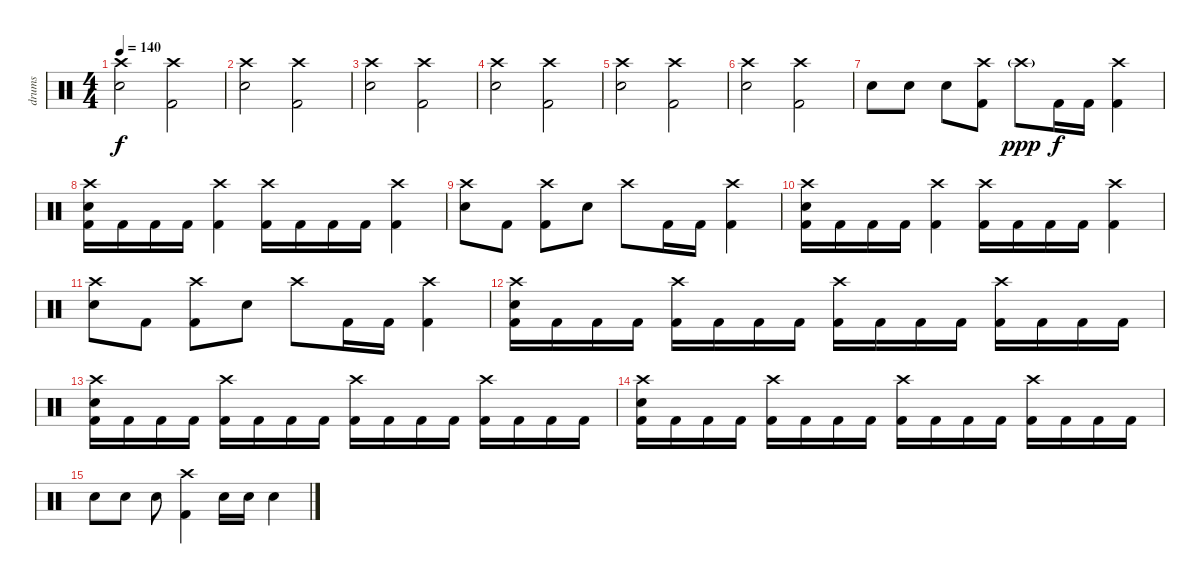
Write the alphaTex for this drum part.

\track ("drums" "drums") {instrument percussion}
\staff {score}
\articulation defaults
\ts (4 4)
\tempo 140
\clef neutral
\ks c
("Crash high (hit)" "Electric Snare (hit)").2{dy f} ("Crash high (hit)" "Kick (hit) 2").2 |
("Crash high (hit)" "Electric Snare (hit)").2 ("Crash high (hit)" "Kick (hit) 2").2 |
("Crash high (hit)" "Electric Snare (hit)").2 ("Crash high (hit)" "Kick (hit) 2").2 |
("Crash high (hit)" "Electric Snare (hit)").2 ("Crash high (hit)" "Kick (hit) 2").2 |
("Crash high (hit)" "Electric Snare (hit)").2 ("Crash high (hit)" "Kick (hit) 2").2 |
("Crash high (hit)" "Electric Snare (hit)").2 ("Crash high (hit)" "Kick (hit) 2").2 |
"Electric Snare (hit)".8 "Electric Snare (hit)".8 "Electric Snare (hit)".8 ("Crash high (hit)"{pm} "Kick (hit) 2").8 "Crash high (hit)"{g}.8{dy ppp} "Kick (hit) 2".16{dy f} "Kick (hit) 2".16 ("Crash high (hit)" "Kick (hit) 2").4 |
("Crash high (hit)" "Electric Snare (hit)" "Kick (hit) 2").16 "Kick (hit) 2".16 "Kick (hit) 2".16 "Kick (hit) 2".16 ("Crash high (hit)" "Kick (hit) 2").4 ("Crash high (hit)" "Kick (hit) 2").16 "Kick (hit) 2".16 "Kick (hit) 2".16 "Kick (hit) 2".16 ("Crash high (hit)" "Kick (hit) 2").4 |
("Crash high (hit)" "Electric Snare (hit)").8 "Kick (hit) 2".8 ("Crash high (hit)" "Kick (hit) 2").8 "Electric Snare (hit)".8 "Crash high (hit)".8 "Kick (hit) 2".16 "Kick (hit) 2".16 ("Crash high (hit)" "Kick (hit) 2").4 |
("Crash high (hit)" "Electric Snare (hit)" "Kick (hit) 2").16 "Kick (hit) 2".16 "Kick (hit) 2".16 "Kick (hit) 2".16 ("Crash high (hit)" "Kick (hit) 2").4 ("Crash high (hit)" "Kick (hit) 2").16 "Kick (hit) 2".16 "Kick (hit) 2".16 "Kick (hit) 2".16 ("Crash high (hit)" "Kick (hit) 2").4 |
("Crash high (hit)" "Electric Snare (hit)").8 "Kick (hit) 2".8 ("Crash high (hit)" "Kick (hit) 2").8 "Electric Snare (hit)".8 "Crash high (hit)".8 "Kick (hit) 2".16 "Kick (hit) 2".16 ("Crash high (hit)" "Kick (hit) 2").4 |
("Crash high (hit)" "Electric Snare (hit)" "Kick (hit) 2").16 "Kick (hit) 2".16 "Kick (hit) 2".16 "Kick (hit) 2".16 ("Crash high (hit)" "Kick (hit) 2").16 "Kick (hit) 2".16 "Kick (hit) 2".16 "Kick (hit) 2".16 ("Crash high (hit)" "Kick (hit) 2").16 "Kick (hit) 2".16 "Kick (hit) 2".16 "Kick (hit) 2".16 ("Crash high (hit)" "Kick (hit) 2").16 "Kick (hit) 2".16 "Kick (hit) 2".16 "Kick (hit) 2".16 |
("Crash high (hit)" "Electric Snare (hit)" "Kick (hit) 2").16 "Kick (hit) 2".16 "Kick (hit) 2".16 "Kick (hit) 2".16 ("Crash high (hit)" "Kick (hit) 2").16 "Kick (hit) 2".16 "Kick (hit) 2".16 "Kick (hit) 2".16 ("Crash high (hit)" "Kick (hit) 2").16 "Kick (hit) 2".16 "Kick (hit) 2".16 "Kick (hit) 2".16 ("Crash high (hit)" "Kick (hit) 2").16 "Kick (hit) 2".16 "Kick (hit) 2".16 "Kick (hit) 2".16 |
("Crash high (hit)" "Electric Snare (hit)" "Kick (hit) 2").16 "Kick (hit) 2".16 "Kick (hit) 2".16 "Kick (hit) 2".16 ("Crash high (hit)" "Kick (hit) 2").16 "Kick (hit) 2".16 "Kick (hit) 2".16 "Kick (hit) 2".16 ("Crash high (hit)" "Kick (hit) 2").16 "Kick (hit) 2".16 "Kick (hit) 2".16 "Kick (hit) 2".16 ("Crash high (hit)" "Kick (hit) 2").16 "Kick (hit) 2".16 "Kick (hit) 2".16 "Kick (hit) 2".16 |
"Electric Snare (hit)".8 "Electric Snare (hit)".8 "Electric Snare (hit)".8 ("Crash high (hit)" "Kick (hit) 2").4 "Electric Snare (hit)".16 "Electric Snare (hit)".16 "Electric Snare (hit)".4
